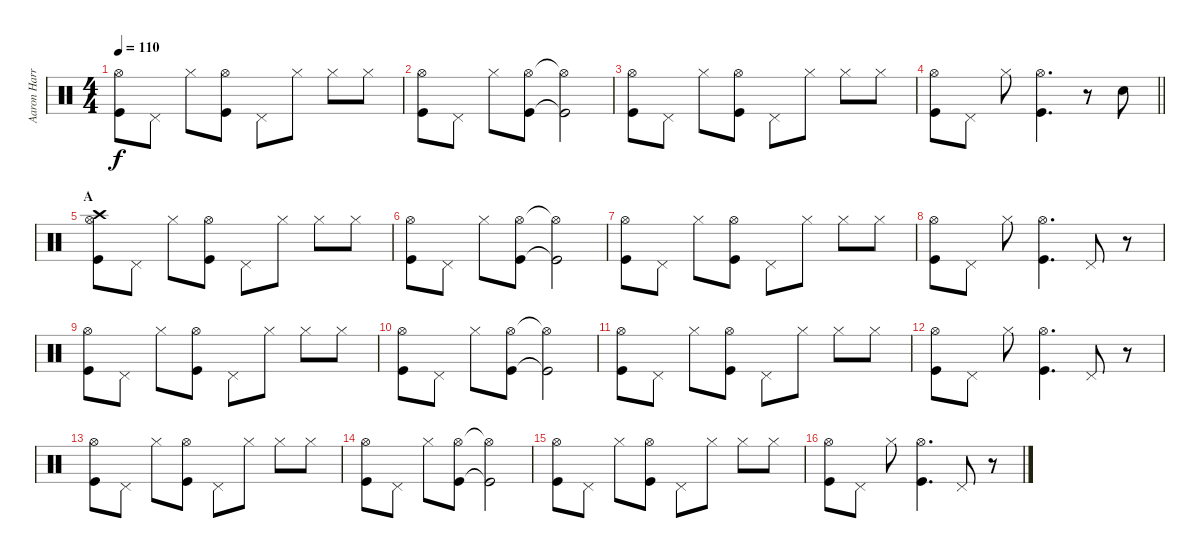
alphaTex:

\track ("Aaron Harris" "Aaron Harr") {instrument percussion}
\staff {score}
\articulation defaults
\ts (4 4)
\tempo 110
\clef neutral
\ks c
("Hi-Hat (open)" "Kick (hit)").8{dy f} "Pedal Hi-Hat (hit)".8 "Hi-Hat (closed)".8 ("Hi-Hat (open)" "Kick (hit)").8 "Pedal Hi-Hat (hit)".8 "Hi-Hat (closed)".8 "Hi-Hat (closed)".8 "Hi-Hat (closed)".8 |
("Hi-Hat (open)" "Kick (hit)").8 "Pedal Hi-Hat (hit)".8 "Hi-Hat (closed)".8 ("Hi-Hat (open)" "Kick (hit)").8 ("Hi-Hat (open)"{t} "Kick (hit)"{t}).2 |
("Hi-Hat (open)" "Kick (hit)").8 "Pedal Hi-Hat (hit)".8 "Hi-Hat (closed)".8 ("Hi-Hat (open)" "Kick (hit)").8 "Pedal Hi-Hat (hit)".8 "Hi-Hat (closed)".8 "Hi-Hat (closed)".8 "Hi-Hat (closed)".8 |
\barLineRight lightlight
("Hi-Hat (open)" "Kick (hit)").8 "Pedal Hi-Hat (hit)".8 "Hi-Hat (closed)".8 ("Hi-Hat (open)" "Kick (hit)").4{d} r.8 "Snare (hit) 2".8 |
\section ("" "A")
("Hi-Hat (open)" "Crash high (hit)" "Kick (hit)").8 "Pedal Hi-Hat (hit)".8 "Hi-Hat (closed)".8 ("Hi-Hat (open)" "Kick (hit)").8 "Pedal Hi-Hat (hit)".8 "Hi-Hat (closed)".8 "Hi-Hat (closed)".8 "Hi-Hat (closed)".8 |
("Hi-Hat (open)" "Kick (hit)").8 "Pedal Hi-Hat (hit)".8 "Hi-Hat (closed)".8 ("Hi-Hat (open)" "Kick (hit)").8 ("Hi-Hat (open)"{t} "Kick (hit)"{t}).2 |
("Hi-Hat (open)" "Kick (hit)").8 "Pedal Hi-Hat (hit)".8 "Hi-Hat (closed)".8 ("Hi-Hat (open)" "Kick (hit)").8 "Pedal Hi-Hat (hit)".8 "Hi-Hat (closed)".8 "Hi-Hat (closed)".8 "Hi-Hat (closed)".8 |
("Hi-Hat (open)" "Kick (hit)").8 "Pedal Hi-Hat (hit)".8 "Hi-Hat (closed)".8 ("Hi-Hat (open)" "Kick (hit)").4{d} "Pedal Hi-Hat (hit)".8 r.8 |
("Hi-Hat (open)" "Kick (hit)").8 "Pedal Hi-Hat (hit)".8 "Hi-Hat (closed)".8 ("Hi-Hat (open)" "Kick (hit)").8 "Pedal Hi-Hat (hit)".8 "Hi-Hat (closed)".8 "Hi-Hat (closed)".8 "Hi-Hat (closed)".8 |
("Hi-Hat (open)" "Kick (hit)").8 "Pedal Hi-Hat (hit)".8 "Hi-Hat (closed)".8 ("Hi-Hat (open)" "Kick (hit)").8 ("Hi-Hat (open)"{t} "Kick (hit)"{t}).2 |
("Hi-Hat (open)" "Kick (hit)").8 "Pedal Hi-Hat (hit)".8 "Hi-Hat (closed)".8 ("Hi-Hat (open)" "Kick (hit)").8 "Pedal Hi-Hat (hit)".8 "Hi-Hat (closed)".8 "Hi-Hat (closed)".8 "Hi-Hat (closed)".8 |
("Hi-Hat (open)" "Kick (hit)").8 "Pedal Hi-Hat (hit)".8 "Hi-Hat (closed)".8 ("Hi-Hat (open)" "Kick (hit)").4{d} "Pedal Hi-Hat (hit)".8 r.8 |
("Hi-Hat (open)" "Kick (hit)").8 "Pedal Hi-Hat (hit)".8 "Hi-Hat (closed)".8 ("Hi-Hat (open)" "Kick (hit)").8 "Pedal Hi-Hat (hit)".8 "Hi-Hat (closed)".8 "Hi-Hat (closed)".8 "Hi-Hat (closed)".8 |
("Hi-Hat (open)" "Kick (hit)").8 "Pedal Hi-Hat (hit)".8 "Hi-Hat (closed)".8 ("Hi-Hat (open)" "Kick (hit)").8 ("Hi-Hat (open)"{t} "Kick (hit)"{t}).2 |
("Hi-Hat (open)" "Kick (hit)").8 "Pedal Hi-Hat (hit)".8 "Hi-Hat (closed)".8 ("Hi-Hat (open)" "Kick (hit)").8 "Pedal Hi-Hat (hit)".8 "Hi-Hat (closed)".8 "Hi-Hat (closed)".8 "Hi-Hat (closed)".8 |
("Hi-Hat (open)" "Kick (hit)").8 "Pedal Hi-Hat (hit)".8 "Hi-Hat (closed)".8 ("Hi-Hat (open)" "Kick (hit)").4{d} "Pedal Hi-Hat (hit)".8 r.8
